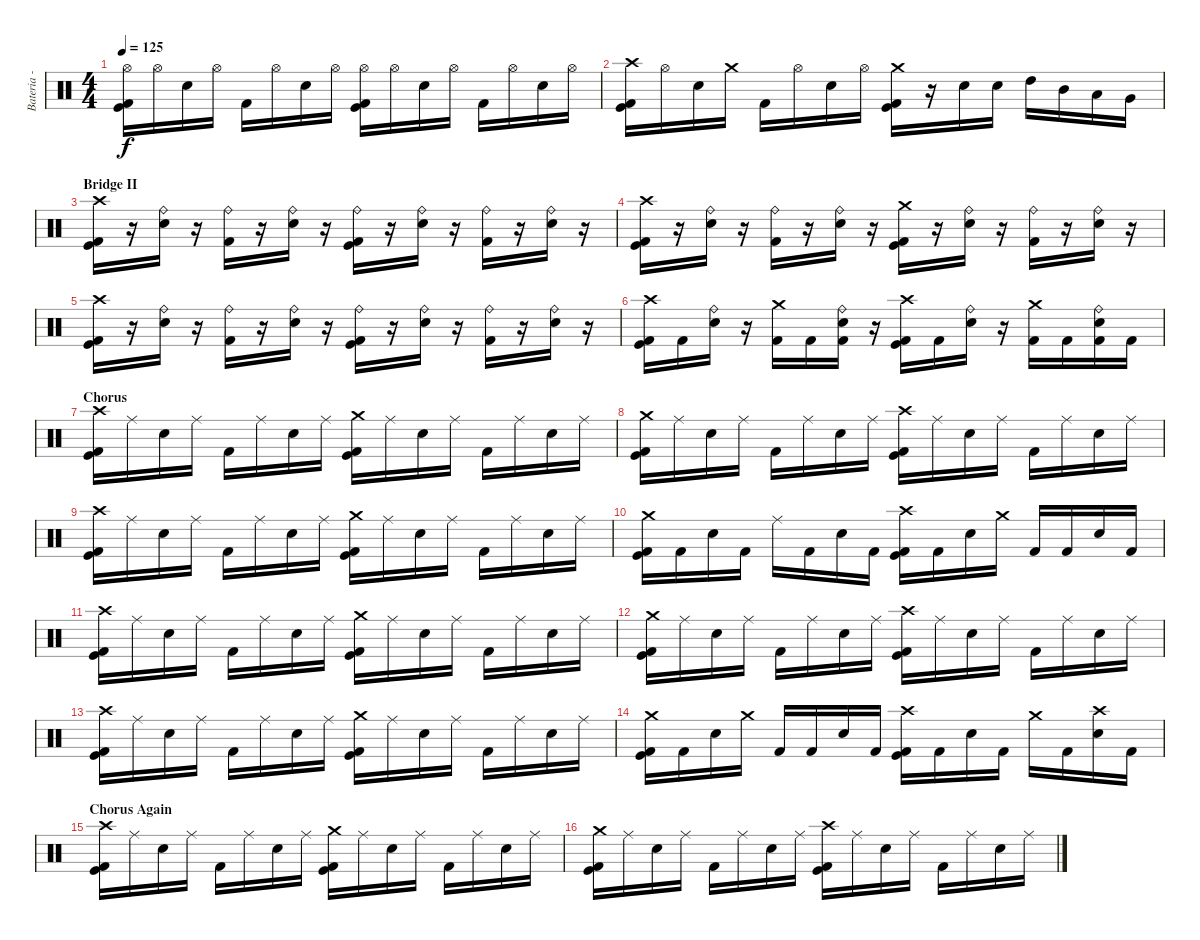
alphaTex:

\track ("Bateria - Drums" "Bateria - ") {instrument percussion}
\staff {score}
\articulation defaults
\ts (4 4)
\tempo 125
\clef neutral
\ks c
("Hi-Hat (open)" "Kick (hit)" "Kick (hit) 2").16{dy f} "Hi-Hat (open)".16 "Electric Snare (hit)".16 "Hi-Hat (open)".16 "Kick (hit) 2".16 "Hi-Hat (open)".16 "Electric Snare (hit)".16 "Hi-Hat (open)".16 ("Hi-Hat (open)" "Kick (hit)" "Kick (hit) 2").16 "Hi-Hat (open)".16 "Electric Snare (hit)".16 "Hi-Hat (open)".16 "Kick (hit) 2".16 "Hi-Hat (open)".16 "Electric Snare (hit)".16 "Hi-Hat (open)".16 |
("Crash high (hit)" "Kick (hit)" "Kick (hit) 2").16 "Hi-Hat (open)".16 "Electric Snare (hit)".16 "Crash medium (hit)".16 "Kick (hit) 2".16 "Hi-Hat (open)".16 "Electric Snare (hit)".16 "Hi-Hat (open)".16 ("Crash medium (hit)" "Kick (hit)" "Kick (hit) 2").16 r.16 "Electric Snare (hit)".16 "Snare (hit) 2".16 "High Tom (hit)".16 "Mid Tom (hit)".16 "Low Tom (hit)".16 "Very Low Tom (hit)".16 |
\section ("" "Bridge II")
("Crash high (hit)" "Kick (hit)" "Kick (hit) 2").16 r.16 ("Ride (bell)" "Electric Snare (hit)").16 r.16 ("Ride (bell)" "Kick (hit) 2").16 r.16 ("Ride (bell)" "Electric Snare (hit)").16 r.16 ("Ride (bell)" "Kick (hit)" "Kick (hit) 2").16 r.16 ("Ride (bell)" "Electric Snare (hit)").16 r.16 ("Ride (bell)" "Kick (hit) 2").16 r.16 ("Ride (bell)" "Electric Snare (hit)").16 r.16 |
("Crash high (hit)" "Kick (hit)" "Kick (hit) 2").16 r.16 ("Ride (bell)" "Electric Snare (hit)").16 r.16 ("Ride (bell)" "Kick (hit) 2").16 r.16 ("Ride (bell)" "Electric Snare (hit)").16 r.16 ("Crash medium (hit)" "Kick (hit)" "Kick (hit) 2").16 r.16 ("Ride (bell)" "Electric Snare (hit)").16 r.16 ("Ride (bell)" "Kick (hit) 2").16 r.16 ("Ride (bell)" "Electric Snare (hit)").16 r.16 |
("Crash high (hit)" "Kick (hit)" "Kick (hit) 2").16 r.16 ("Ride (bell)" "Electric Snare (hit)").16 r.16 ("Ride (bell)" "Kick (hit) 2").16 r.16 ("Ride (bell)" "Electric Snare (hit)").16 r.16 ("Ride (bell)" "Kick (hit)" "Kick (hit) 2").16 r.16 ("Ride (bell)" "Electric Snare (hit)").16 r.16 ("Ride (bell)" "Kick (hit) 2").16 r.16 ("Ride (bell)" "Electric Snare (hit)").16 r.16 |
("Crash high (hit)" "Kick (hit)" "Kick (hit) 2").16 "Kick (hit) 2".16 ("Ride (bell)" "Electric Snare (hit)").16 r.16 ("Crash medium (hit)" "Kick (hit) 2").16 "Kick (hit) 2".16 ("Ride (bell)" "Electric Snare (hit)" "Kick (hit) 2").16 r.16 ("Crash high (hit)" "Kick (hit)" "Kick (hit) 2").16 "Kick (hit) 2".16 ("Ride (bell)" "Electric Snare (hit)").16 r.16 ("Crash medium (hit)" "Kick (hit) 2").16 "Kick (hit) 2".16 ("Ride (bell)" "Electric Snare (hit)" "Kick (hit) 2").16 "Kick (hit) 2".16 |
\section ("" "Chorus")
("Crash high (hit)" "Kick (hit)" "Kick (hit) 2").16 "Ride (middle)".16 "Electric Snare (hit)".16 "Ride (middle)".16 "Kick (hit) 2".16 "Ride (middle)".16 "Electric Snare (hit)".16 "Ride (middle)".16 ("Crash medium (hit)" "Kick (hit)" "Kick (hit) 2").16 "Ride (middle)".16 "Electric Snare (hit)".16 "Ride (middle)".16 "Kick (hit) 2".16 "Ride (middle)".16 "Electric Snare (hit)".16 "Ride (middle)".16 |
("Crash medium (hit)" "Kick (hit)" "Kick (hit) 2").16 "Ride (middle)".16 "Electric Snare (hit)".16 "Ride (middle)".16 "Kick (hit) 2".16 "Ride (middle)".16 "Electric Snare (hit)".16 "Ride (middle)".16 ("Crash high (hit)" "Kick (hit)" "Kick (hit) 2").16 "Ride (middle)".16 "Electric Snare (hit)".16 "Ride (middle)".16 "Kick (hit) 2".16 "Ride (middle)".16 "Electric Snare (hit)".16 "Ride (middle)".16 |
("Crash high (hit)" "Kick (hit)" "Kick (hit) 2").16 "Ride (middle)".16 "Electric Snare (hit)".16 "Ride (middle)".16 "Kick (hit) 2".16 "Ride (middle)".16 "Electric Snare (hit)".16 "Ride (middle)".16 ("Crash medium (hit)" "Kick (hit)" "Kick (hit) 2").16 "Ride (middle)".16 "Electric Snare (hit)".16 "Ride (middle)".16 "Kick (hit) 2".16 "Ride (middle)".16 "Electric Snare (hit)".16 "Ride (middle)".16 |
("Crash medium (hit)" "Kick (hit)" "Kick (hit) 2").16 "Kick (hit) 2".16 "Electric Snare (hit)".16 "Kick (hit) 2".16 "Ride (middle)".16 "Kick (hit) 2".16 "Electric Snare (hit)".16 "Kick (hit) 2".16 ("Crash high (hit)" "Kick (hit)" "Kick (hit) 2").16 "Kick (hit) 2".16 "Electric Snare (hit)".16 "Crash medium (hit)".16 "Kick (hit) 2".16 "Kick (hit) 2".16 "Electric Snare (hit)".16 "Kick (hit) 2".16 |
("Crash high (hit)" "Kick (hit)" "Kick (hit) 2").16 "Ride (middle)".16 "Electric Snare (hit)".16 "Ride (middle)".16 "Kick (hit) 2".16 "Ride (middle)".16 "Electric Snare (hit)".16 "Ride (middle)".16 ("Crash medium (hit)" "Kick (hit)" "Kick (hit) 2").16 "Ride (middle)".16 "Electric Snare (hit)".16 "Ride (middle)".16 "Kick (hit) 2".16 "Ride (middle)".16 "Electric Snare (hit)".16 "Ride (middle)".16 |
("Crash medium (hit)" "Kick (hit)" "Kick (hit) 2").16 "Ride (middle)".16 "Electric Snare (hit)".16 "Ride (middle)".16 "Kick (hit) 2".16 "Ride (middle)".16 "Electric Snare (hit)".16 "Ride (middle)".16 ("Crash high (hit)" "Kick (hit)" "Kick (hit) 2").16 "Ride (middle)".16 "Electric Snare (hit)".16 "Ride (middle)".16 "Kick (hit) 2".16 "Ride (middle)".16 "Electric Snare (hit)".16 "Ride (middle)".16 |
("Crash high (hit)" "Kick (hit)" "Kick (hit) 2").16 "Ride (middle)".16 "Electric Snare (hit)".16 "Ride (middle)".16 "Kick (hit) 2".16 "Ride (middle)".16 "Electric Snare (hit)".16 "Ride (middle)".16 ("Crash medium (hit)" "Kick (hit)" "Kick (hit) 2").16 "Ride (middle)".16 "Electric Snare (hit)".16 "Ride (middle)".16 "Kick (hit) 2".16 "Ride (middle)".16 "Electric Snare (hit)".16 "Ride (middle)".16 |
("Crash medium (hit)" "Kick (hit)" "Kick (hit) 2").16 "Kick (hit) 2".16 "Electric Snare (hit)".16 "Crash medium (hit)".16 "Kick (hit) 2".16 "Kick (hit) 2".16 "Electric Snare (hit)".16 "Kick (hit) 2".16 ("Crash high (hit)" "Kick (hit)" "Kick (hit) 2").16 "Kick (hit) 2".16 "Electric Snare (hit)".16 "Kick (hit) 2".16 "Crash medium (hit)".16 "Kick (hit) 2".16 ("Crash high (hit)" "Electric Snare (hit)").16 "Kick (hit) 2".16 |
\section ("" "Chorus Again")
("Crash high (hit)" "Kick (hit)" "Kick (hit) 2").16 "Ride (middle)".16 "Electric Snare (hit)".16 "Ride (middle)".16 "Kick (hit) 2".16 "Ride (middle)".16 "Electric Snare (hit)".16 "Ride (middle)".16 ("Crash medium (hit)" "Kick (hit)" "Kick (hit) 2").16 "Ride (middle)".16 "Electric Snare (hit)".16 "Ride (middle)".16 "Kick (hit) 2".16 "Ride (middle)".16 "Electric Snare (hit)".16 "Ride (middle)".16 |
("Crash medium (hit)" "Kick (hit)" "Kick (hit) 2").16 "Ride (middle)".16 "Electric Snare (hit)".16 "Ride (middle)".16 "Kick (hit) 2".16 "Ride (middle)".16 "Electric Snare (hit)".16 "Ride (middle)".16 ("Crash high (hit)" "Kick (hit)" "Kick (hit) 2").16 "Ride (middle)".16 "Electric Snare (hit)".16 "Ride (middle)".16 "Kick (hit) 2".16 "Ride (middle)".16 "Electric Snare (hit)".16 "Ride (middle)".16
